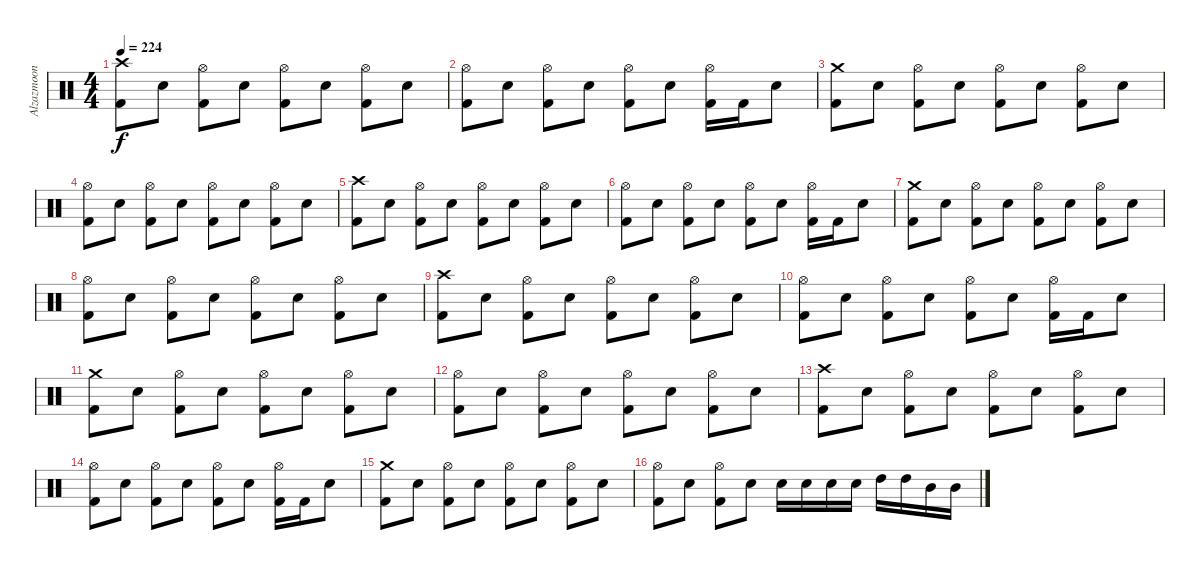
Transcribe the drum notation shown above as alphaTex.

\track ("Alzazmoon" "Alzazmoon") {instrument percussion}
\staff {score}
\articulation defaults
\ts (4 4)
\tempo 224
\clef neutral
\ks c
("Crash high (hit)" "Kick (hit) 2").8{dy f} "Snare (hit) 2".8 ("Hi-Hat (open)" "Kick (hit) 2").8 "Snare (hit) 2".8 ("Hi-Hat (open)" "Kick (hit) 2").8 "Snare (hit) 2".8 ("Hi-Hat (open)" "Kick (hit) 2").8 "Snare (hit) 2".8 |
("Hi-Hat (open)" "Kick (hit) 2").8 "Snare (hit) 2".8 ("Hi-Hat (open)" "Kick (hit) 2").8 "Snare (hit) 2".8 ("Hi-Hat (open)" "Kick (hit) 2").8 "Snare (hit) 2".8 ("Hi-Hat (open)" "Kick (hit) 2").16 "Kick (hit) 2".16 "Snare (hit) 2".8 |
("Crash medium (hit)" "Kick (hit) 2").8 "Snare (hit) 2".8 ("Hi-Hat (open)" "Kick (hit) 2").8 "Snare (hit) 2".8 ("Hi-Hat (open)" "Kick (hit) 2").8 "Snare (hit) 2".8 ("Hi-Hat (open)" "Kick (hit) 2").8 "Snare (hit) 2".8 |
("Hi-Hat (open)" "Kick (hit) 2").8 "Snare (hit) 2".8 ("Hi-Hat (open)" "Kick (hit) 2").8 "Snare (hit) 2".8 ("Hi-Hat (open)" "Kick (hit) 2").8 "Snare (hit) 2".8 ("Hi-Hat (open)" "Kick (hit) 2").8 "Snare (hit) 2".8 |
("Crash high (hit)" "Kick (hit) 2").8 "Snare (hit) 2".8 ("Hi-Hat (open)" "Kick (hit) 2").8 "Snare (hit) 2".8 ("Hi-Hat (open)" "Kick (hit) 2").8 "Snare (hit) 2".8 ("Hi-Hat (open)" "Kick (hit) 2").8 "Snare (hit) 2".8 |
("Hi-Hat (open)" "Kick (hit) 2").8 "Snare (hit) 2".8 ("Hi-Hat (open)" "Kick (hit) 2").8 "Snare (hit) 2".8 ("Hi-Hat (open)" "Kick (hit) 2").8 "Snare (hit) 2".8 ("Hi-Hat (open)" "Kick (hit) 2").16 "Kick (hit) 2".16 "Snare (hit) 2".8 |
("Crash medium (hit)" "Kick (hit) 2").8 "Snare (hit) 2".8 ("Hi-Hat (open)" "Kick (hit) 2").8 "Snare (hit) 2".8 ("Hi-Hat (open)" "Kick (hit) 2").8 "Snare (hit) 2".8 ("Hi-Hat (open)" "Kick (hit) 2").8 "Snare (hit) 2".8 |
("Hi-Hat (open)" "Kick (hit) 2").8 "Snare (hit) 2".8 ("Hi-Hat (open)" "Kick (hit) 2").8 "Snare (hit) 2".8 ("Hi-Hat (open)" "Kick (hit) 2").8 "Snare (hit) 2".8 ("Hi-Hat (open)" "Kick (hit) 2").8 "Snare (hit) 2".8 |
("Crash high (hit)" "Kick (hit) 2").8 "Snare (hit) 2".8 ("Hi-Hat (open)" "Kick (hit) 2").8 "Snare (hit) 2".8 ("Hi-Hat (open)" "Kick (hit) 2").8 "Snare (hit) 2".8 ("Hi-Hat (open)" "Kick (hit) 2").8 "Snare (hit) 2".8 |
("Hi-Hat (open)" "Kick (hit) 2").8 "Snare (hit) 2".8 ("Hi-Hat (open)" "Kick (hit) 2").8 "Snare (hit) 2".8 ("Hi-Hat (open)" "Kick (hit) 2").8 "Snare (hit) 2".8 ("Hi-Hat (open)" "Kick (hit) 2").16 "Kick (hit) 2".16 "Snare (hit) 2".8 |
("Crash medium (hit)" "Kick (hit) 2").8 "Snare (hit) 2".8 ("Hi-Hat (open)" "Kick (hit) 2").8 "Snare (hit) 2".8 ("Hi-Hat (open)" "Kick (hit) 2").8 "Snare (hit) 2".8 ("Hi-Hat (open)" "Kick (hit) 2").8 "Snare (hit) 2".8 |
("Hi-Hat (open)" "Kick (hit) 2").8 "Snare (hit) 2".8 ("Hi-Hat (open)" "Kick (hit) 2").8 "Snare (hit) 2".8 ("Hi-Hat (open)" "Kick (hit) 2").8 "Snare (hit) 2".8 ("Hi-Hat (open)" "Kick (hit) 2").8 "Snare (hit) 2".8 |
("Crash high (hit)" "Kick (hit) 2").8 "Snare (hit) 2".8 ("Hi-Hat (open)" "Kick (hit) 2").8 "Snare (hit) 2".8 ("Hi-Hat (open)" "Kick (hit) 2").8 "Snare (hit) 2".8 ("Hi-Hat (open)" "Kick (hit) 2").8 "Snare (hit) 2".8 |
("Hi-Hat (open)" "Kick (hit) 2").8 "Snare (hit) 2".8 ("Hi-Hat (open)" "Kick (hit) 2").8 "Snare (hit) 2".8 ("Hi-Hat (open)" "Kick (hit) 2").8 "Snare (hit) 2".8 ("Hi-Hat (open)" "Kick (hit) 2").16 "Kick (hit) 2".16 "Snare (hit) 2".8 |
("Crash medium (hit)" "Kick (hit) 2").8 "Snare (hit) 2".8 ("Hi-Hat (open)" "Kick (hit) 2").8 "Snare (hit) 2".8 ("Hi-Hat (open)" "Kick (hit) 2").8 "Snare (hit) 2".8 ("Hi-Hat (open)" "Kick (hit) 2").8 "Snare (hit) 2".8 |
("Hi-Hat (open)" "Kick (hit) 2").8 "Snare (hit) 2".8 ("Hi-Hat (open)" "Kick (hit) 2").8 "Snare (hit) 2".8 "Snare (hit) 2".16 "Snare (hit) 2".16 "Snare (hit) 2".16 "Snare (hit) 2".16 "High Tom (hit)".16 "High Tom (hit)".16 "Mid Tom (hit)".16 "Mid Tom (hit)".16
